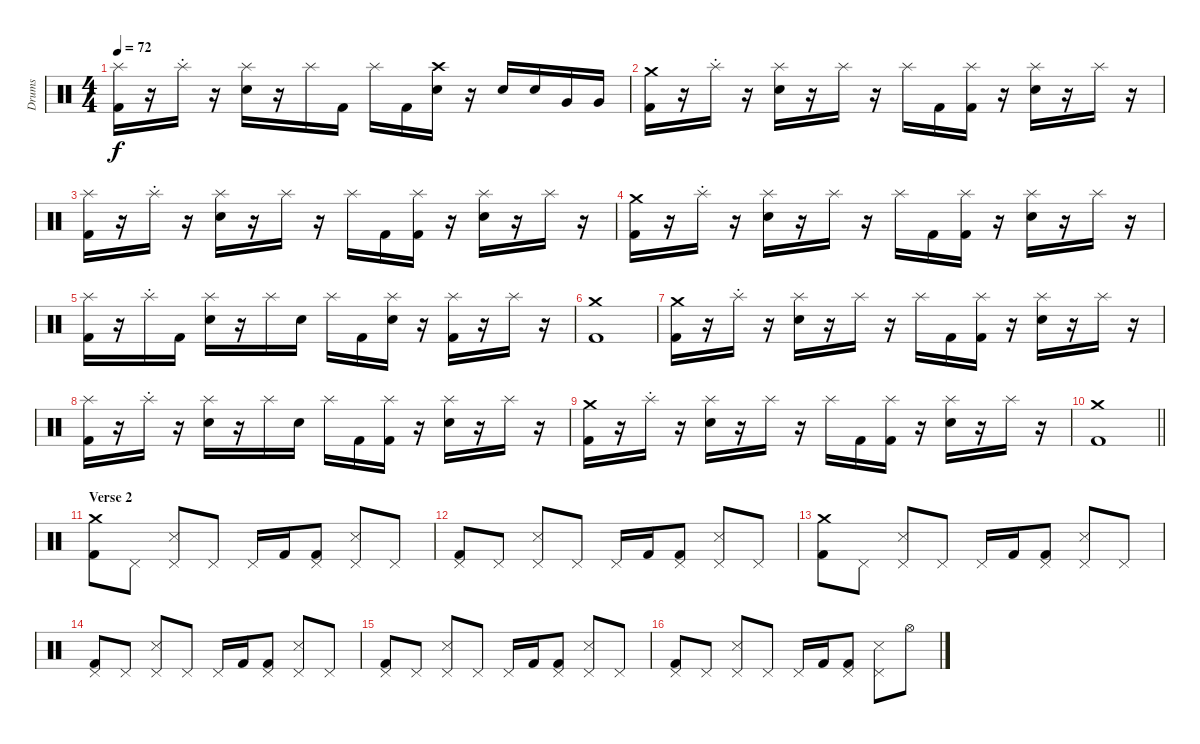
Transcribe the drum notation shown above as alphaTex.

\track ("Drums" "Drums") {instrument percussion}
\staff {score}
\articulation defaults
\ts (4 4)
\tempo 72
\clef neutral
\ks c
("Splash (hit)" "Kick (hit) 2").16{dy f} r.16 "Splash (hit)"{st}.16 r.16 ("Splash (hit)" "Electric Snare (hit)").16 r.16 "Splash (hit)".16 "Kick (hit) 2".16 "Splash (hit)".16 "Kick (hit) 2".16 ("Crash high (hit)" "Electric Snare (hit)").16 r.16 "Electric Snare (hit)".16 "Electric Snare (hit)".16 "Very Low Tom (hit)".16 "Very Low Tom (hit)".16 |
("Crash medium (hit)" "Kick (hit) 2").16 r.16 "Splash (hit)"{st}.16 r.16 ("Splash (hit)" "Electric Snare (hit)").16 r.16 "Splash (hit)".16 r.16 "Splash (hit)".16 "Kick (hit) 2".16 ("Splash (hit)" "Kick (hit) 2").16 r.16 ("Splash (hit)" "Electric Snare (hit)").16 r.16 "Splash (hit)".16 r.16 |
("Splash (hit)" "Kick (hit) 2").16 r.16 "Splash (hit)"{st}.16 r.16 ("Splash (hit)" "Electric Snare (hit)").16 r.16 "Splash (hit)".16 r.16 "Splash (hit)".16 "Kick (hit) 2".16 ("Splash (hit)" "Kick (hit) 2").16 r.16 ("Splash (hit)" "Electric Snare (hit)").16 r.16 "Splash (hit)".16 r.16 |
("Crash medium (hit)" "Kick (hit) 2").16 r.16 "Splash (hit)"{st}.16 r.16 ("Splash (hit)" "Electric Snare (hit)").16 r.16 "Splash (hit)".16 r.16 "Splash (hit)".16 "Kick (hit) 2".16 ("Splash (hit)" "Kick (hit) 2").16 r.16 ("Splash (hit)" "Electric Snare (hit)").16 r.16 "Splash (hit)".16 r.16 |
("Splash (hit)" "Kick (hit) 2").16 r.16 "Splash (hit)"{st}.16 "Kick (hit) 2".16 ("Splash (hit)" "Electric Snare (hit)").16 r.16 "Splash (hit)".16 "Electric Snare (hit)".16 "Splash (hit)".16 "Kick (hit) 2".16 ("Splash (hit)" "Electric Snare (hit)").16 r.16 ("Splash (hit)" "Kick (hit) 2").16 r.16 "Splash (hit)".16 r.16 |
("Crash medium (hit)" "Kick (hit) 2").1 |
("Crash medium (hit)" "Kick (hit) 2").16 r.16 "Splash (hit)"{st}.16 r.16 ("Splash (hit)" "Electric Snare (hit)").16 r.16 "Splash (hit)".16 r.16 "Splash (hit)".16 "Kick (hit) 2".16 ("Splash (hit)" "Kick (hit) 2").16 r.16 ("Splash (hit)" "Electric Snare (hit)").16 r.16 "Splash (hit)".16 r.16 |
("Splash (hit)" "Kick (hit) 2").16 r.16 "Splash (hit)"{st}.16 r.16 ("Splash (hit)" "Electric Snare (hit)").16 r.16 "Splash (hit)".16 "Electric Snare (hit)".16 "Splash (hit)".16 "Kick (hit) 2".16 ("Splash (hit)" "Kick (hit) 2").16 r.16 ("Splash (hit)" "Electric Snare (hit)").16 r.16 "Splash (hit)".16 r.16 |
("Crash medium (hit)" "Kick (hit) 2").16 r.16 "Splash (hit)"{st}.16 r.16 ("Splash (hit)" "Electric Snare (hit)").16 r.16 "Splash (hit)".16 r.16 "Splash (hit)".16 "Kick (hit) 2".16 ("Splash (hit)" "Kick (hit) 2").16 r.16 ("Splash (hit)" "Electric Snare (hit)").16 r.16 "Splash (hit)".16 r.16 |
\barLineRight lightlight
("Crash medium (hit)" "Kick (hit) 2").1 |
\section ("" "Verse 2")
("Crash medium (hit)" "Kick (hit) 2").8 "Pedal Hi-Hat (hit)".8 ("Pedal Hi-Hat (hit)" "Snare (side stick) 3").8 "Pedal Hi-Hat (hit)".8 "Pedal Hi-Hat (hit)".16 "Kick (hit) 2".16 ("Pedal Hi-Hat (hit)" "Kick (hit) 2").8 ("Pedal Hi-Hat (hit)" "Snare (side stick) 3").8 "Pedal Hi-Hat (hit)".8 |
("Pedal Hi-Hat (hit)" "Kick (hit) 2").8 "Pedal Hi-Hat (hit)".8 ("Pedal Hi-Hat (hit)" "Snare (side stick) 3").8 "Pedal Hi-Hat (hit)".8 "Pedal Hi-Hat (hit)".16 "Kick (hit) 2".16 ("Pedal Hi-Hat (hit)" "Kick (hit) 2").8 ("Pedal Hi-Hat (hit)" "Snare (side stick) 3").8 "Pedal Hi-Hat (hit)".8 |
("Crash medium (hit)" "Kick (hit) 2").8 "Pedal Hi-Hat (hit)".8 ("Pedal Hi-Hat (hit)" "Snare (side stick) 3").8 "Pedal Hi-Hat (hit)".8 "Pedal Hi-Hat (hit)".16 "Kick (hit) 2".16 ("Pedal Hi-Hat (hit)" "Kick (hit) 2").8 ("Pedal Hi-Hat (hit)" "Snare (side stick) 3").8 "Pedal Hi-Hat (hit)".8 |
("Pedal Hi-Hat (hit)" "Kick (hit) 2").8 "Pedal Hi-Hat (hit)".8 ("Pedal Hi-Hat (hit)" "Snare (side stick) 3").8 "Pedal Hi-Hat (hit)".8 "Pedal Hi-Hat (hit)".16 "Kick (hit) 2".16 ("Pedal Hi-Hat (hit)" "Kick (hit) 2").8 ("Pedal Hi-Hat (hit)" "Snare (side stick) 3").8 "Pedal Hi-Hat (hit)".8 |
("Pedal Hi-Hat (hit)" "Kick (hit) 2").8 "Pedal Hi-Hat (hit)".8 ("Pedal Hi-Hat (hit)" "Snare (side stick) 3").8 "Pedal Hi-Hat (hit)".8 "Pedal Hi-Hat (hit)".16 "Kick (hit) 2".16 ("Pedal Hi-Hat (hit)" "Kick (hit) 2").8 ("Pedal Hi-Hat (hit)" "Snare (side stick) 3").8 "Pedal Hi-Hat (hit)".8 |
("Pedal Hi-Hat (hit)" "Kick (hit) 2").8 "Pedal Hi-Hat (hit)".8 ("Pedal Hi-Hat (hit)" "Snare (side stick) 3").8 "Pedal Hi-Hat (hit)".8 "Pedal Hi-Hat (hit)".16 "Kick (hit) 2".16 ("Pedal Hi-Hat (hit)" "Kick (hit) 2").8 ("Pedal Hi-Hat (hit)" "Snare (side stick) 3").8 "Hi-Hat (open)".8
